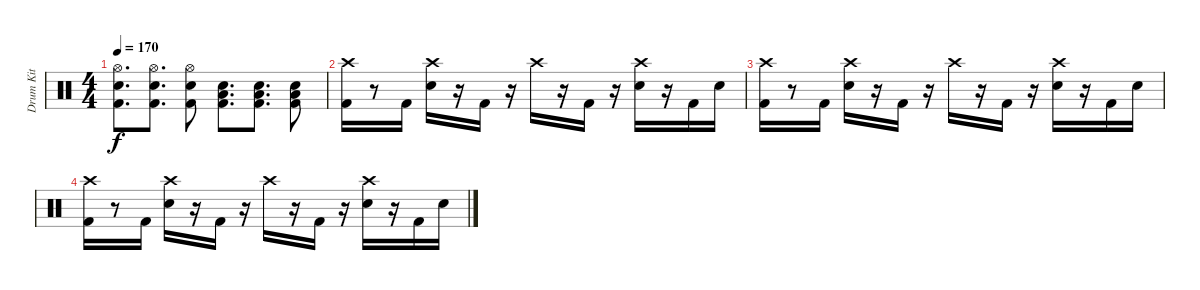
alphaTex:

\track ("Drum Kit" "Drum Kit") {mute instrument percussion}
\staff {score}
\articulation defaults
\ts (4 4)
\tempo 170
\clef neutral
\ks c
("Hi-Hat (open)" "Electric Snare (hit)" "Kick (hit) 2").8{d dy f} ("Hi-Hat (open)" "Electric Snare (hit)" "Kick (hit) 2").8{d} ("Hi-Hat (open)" "Electric Snare (hit)" "Kick (hit) 2").8 ("Low Floor Tom (hit)" "Electric Snare (hit)" "Kick (hit) 2").8{d} ("Low Floor Tom (hit)" "Electric Snare (hit)" "Kick (hit) 2").8{d} ("Low Floor Tom (hit)" "Electric Snare (hit)" "Kick (hit) 2").8 |
("Crash high (hit)" "Kick (hit) 2").16 r.8 "Kick (hit) 2".16 ("Crash high (hit)" "Electric Snare (hit)").16 r.16 "Kick (hit) 2".16 r.16 "Crash high (hit)".16 r.16 "Kick (hit) 2".16 r.16 ("Crash high (hit)" "Electric Snare (hit)").16 r.16 "Kick (hit) 2".16 "Electric Snare (hit)".16 |
("Crash high (hit)" "Kick (hit) 2").16 r.8 "Kick (hit) 2".16 ("Crash high (hit)" "Electric Snare (hit)").16 r.16 "Kick (hit) 2".16 r.16 "Crash high (hit)".16 r.16 "Kick (hit) 2".16 r.16 ("Crash high (hit)" "Electric Snare (hit)").16 r.16 "Kick (hit) 2".16 "Electric Snare (hit)".16 |
("Crash high (hit)" "Kick (hit) 2").16 r.8 "Kick (hit) 2".16 ("Crash high (hit)" "Electric Snare (hit)").16 r.16 "Kick (hit) 2".16 r.16 "Crash high (hit)".16 r.16 "Kick (hit) 2".16 r.16 ("Crash high (hit)" "Electric Snare (hit)").16 r.16 "Kick (hit) 2".16 "Electric Snare (hit)".16
